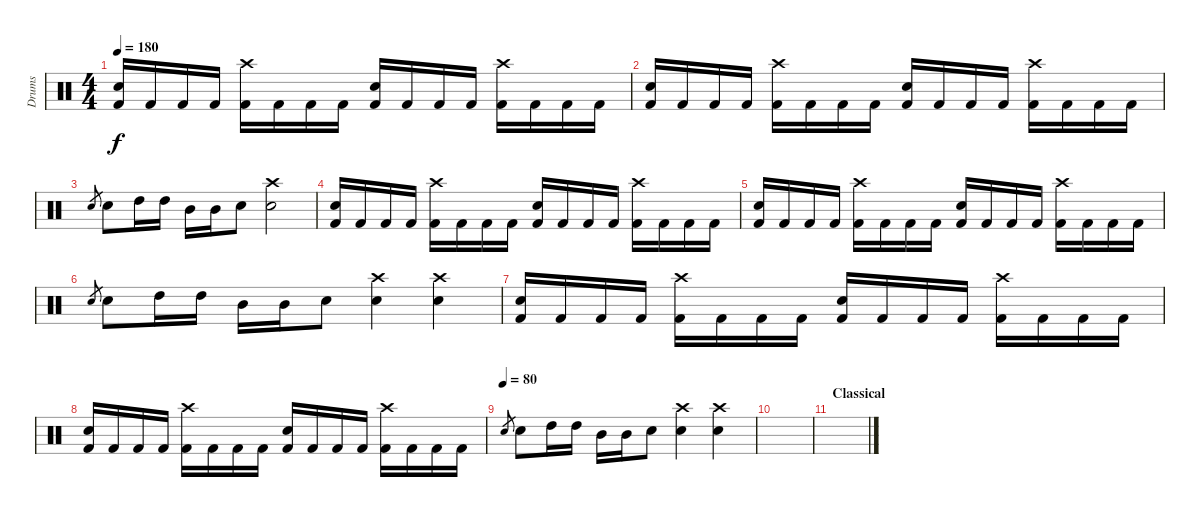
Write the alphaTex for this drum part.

\track ("Drums" "Drums") {instrument percussion}
\staff {score}
\articulation defaults
\ts (4 4)
\tempo 180
\clef neutral
\ks c
("Kick (hit) 2" "Electric Snare (hit)").16{dy f} "Kick (hit) 2".16 "Kick (hit) 2".16 "Kick (hit) 2".16 ("Kick (hit) 2" "Crash high (hit)").16 "Kick (hit) 2".16 "Kick (hit) 2".16 "Kick (hit) 2".16 ("Kick (hit) 2" "Electric Snare (hit)").16 "Kick (hit) 2".16 "Kick (hit) 2".16 "Kick (hit) 2".16 ("Kick (hit) 2" "Crash high (hit)").16 "Kick (hit) 2".16 "Kick (hit) 2".16 "Kick (hit) 2".16 |
("Kick (hit) 2" "Electric Snare (hit)").16 "Kick (hit) 2".16 "Kick (hit) 2".16 "Kick (hit) 2".16 ("Kick (hit) 2" "Crash high (hit)").16 "Kick (hit) 2".16 "Kick (hit) 2".16 "Kick (hit) 2".16 ("Kick (hit) 2" "Electric Snare (hit)").16 "Kick (hit) 2".16 "Kick (hit) 2".16 "Kick (hit) 2".16 ("Kick (hit) 2" "Crash high (hit)").16 "Kick (hit) 2".16 "Kick (hit) 2".16 "Kick (hit) 2".16 |
"Electric Snare (hit)".8{gr} "Electric Snare (hit)".8 "High Tom (hit)".16 "High Tom (hit)".16 "Mid Tom (hit)".16 "Mid Tom (hit)".16 "Electric Snare (hit)".8 ("Crash high (hit)" "Electric Snare (hit)").2 |
("Kick (hit) 2" "Electric Snare (hit)").16 "Kick (hit) 2".16 "Kick (hit) 2".16 "Kick (hit) 2".16 ("Kick (hit) 2" "Crash high (hit)").16 "Kick (hit) 2".16 "Kick (hit) 2".16 "Kick (hit) 2".16 ("Kick (hit) 2" "Electric Snare (hit)").16 "Kick (hit) 2".16 "Kick (hit) 2".16 "Kick (hit) 2".16 ("Kick (hit) 2" "Crash high (hit)").16 "Kick (hit) 2".16 "Kick (hit) 2".16 "Kick (hit) 2".16 |
("Kick (hit) 2" "Electric Snare (hit)").16 "Kick (hit) 2".16 "Kick (hit) 2".16 "Kick (hit) 2".16 ("Kick (hit) 2" "Crash high (hit)").16 "Kick (hit) 2".16 "Kick (hit) 2".16 "Kick (hit) 2".16 ("Kick (hit) 2" "Electric Snare (hit)").16 "Kick (hit) 2".16 "Kick (hit) 2".16 "Kick (hit) 2".16 ("Kick (hit) 2" "Crash high (hit)").16 "Kick (hit) 2".16 "Kick (hit) 2".16 "Kick (hit) 2".16 |
"Electric Snare (hit)".8{gr} "Electric Snare (hit)".8 "High Tom (hit)".16 "High Tom (hit)".16 "Mid Tom (hit)".16 "Mid Tom (hit)".16 "Electric Snare (hit)".8 ("Crash high (hit)" "Electric Snare (hit)").4 ("Crash high (hit)" "Electric Snare (hit)").4 |
("Kick (hit) 2" "Electric Snare (hit)").16 "Kick (hit) 2".16 "Kick (hit) 2".16 "Kick (hit) 2".16 ("Kick (hit) 2" "Crash high (hit)").16 "Kick (hit) 2".16 "Kick (hit) 2".16 "Kick (hit) 2".16 ("Kick (hit) 2" "Electric Snare (hit)").16 "Kick (hit) 2".16 "Kick (hit) 2".16 "Kick (hit) 2".16 ("Kick (hit) 2" "Crash high (hit)").16 "Kick (hit) 2".16 "Kick (hit) 2".16 "Kick (hit) 2".16 |
("Kick (hit) 2" "Electric Snare (hit)").16 "Kick (hit) 2".16 "Kick (hit) 2".16 "Kick (hit) 2".16 ("Kick (hit) 2" "Crash high (hit)").16 "Kick (hit) 2".16 "Kick (hit) 2".16 "Kick (hit) 2".16 ("Kick (hit) 2" "Electric Snare (hit)").16 "Kick (hit) 2".16 "Kick (hit) 2".16 "Kick (hit) 2".16 ("Kick (hit) 2" "Crash high (hit)").16 "Kick (hit) 2".16 "Kick (hit) 2".16 "Kick (hit) 2".16 |
\tempo (80)
"Electric Snare (hit)".8{gr} "Electric Snare (hit)".8 "High Tom (hit)".16 "High Tom (hit)".16 "Mid Tom (hit)".16 "Mid Tom (hit)".16 "Electric Snare (hit)".8 ("Crash high (hit)" "Electric Snare (hit)").4 ("Crash high (hit)" "Electric Snare (hit)").4 |
|
\section ("" "Classical")
